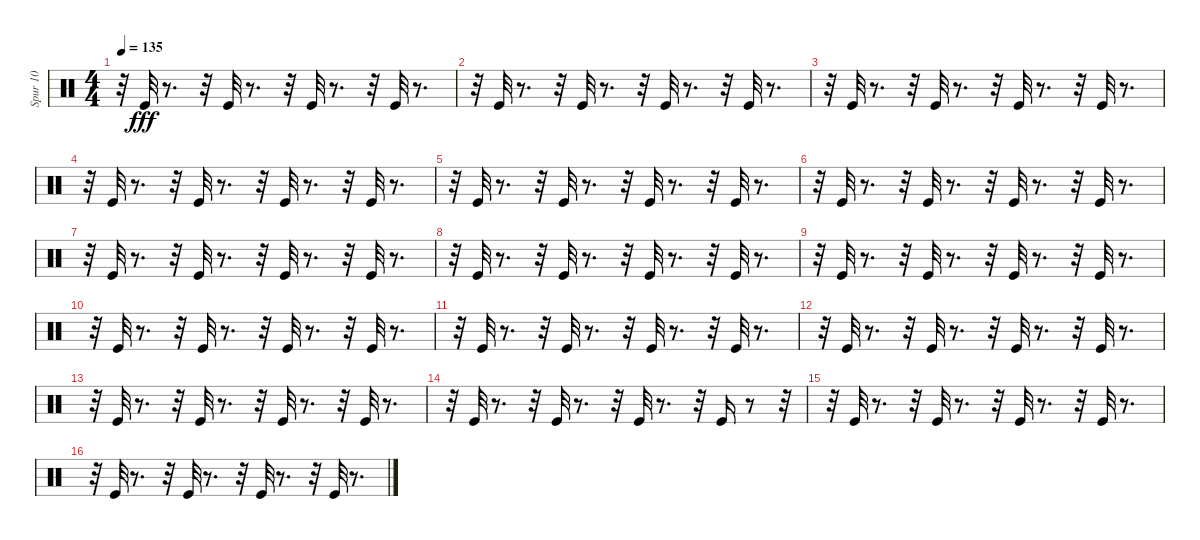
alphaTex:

\track ("Spur 10" "Spur 10") {instrument percussion}
\staff {score}
\articulation defaults
\ts (4 4)
\tempo 135
\clef neutral
\ks c
r.32{dy fff} "Kick (hit)".32 r.8{d} r.32 "Kick (hit)".32 r.8{d} r.32 "Kick (hit)".32 r.8{d} r.32 "Kick (hit)".32 r.8{d} |
r.32 "Kick (hit)".32 r.8{d} r.32 "Kick (hit)".32 r.8{d} r.32 "Kick (hit)".32 r.8{d} r.32 "Kick (hit)".32 r.8{d} |
r.32 "Kick (hit)".32 r.8{d} r.32 "Kick (hit)".32 r.8{d} r.32 "Kick (hit)".32 r.8{d} r.32 "Kick (hit)".32 r.8{d} |
r.32 "Kick (hit)".32 r.8{d} r.32 "Kick (hit)".32 r.8{d} r.32 "Kick (hit)".32 r.8{d} r.32 "Kick (hit)".32 r.8{d} |
r.32 "Kick (hit)".32 r.8{d} r.32 "Kick (hit)".32 r.8{d} r.32 "Kick (hit)".32 r.8{d} r.32 "Kick (hit)".32 r.8{d} |
r.32 "Kick (hit)".32 r.8{d} r.32 "Kick (hit)".32 r.8{d} r.32 "Kick (hit)".32 r.8{d} r.32 "Kick (hit)".32 r.8{d} |
r.32 "Kick (hit)".32 r.8{d} r.32 "Kick (hit)".32 r.8{d} r.32 "Kick (hit)".32 r.8{d} r.32 "Kick (hit)".32 r.8{d} |
r.32 "Kick (hit)".32 r.8{d} r.32 "Kick (hit)".32 r.8{d} r.32 "Kick (hit)".32 r.8{d} r.32 "Kick (hit)".32 r.8{d} |
r.32 "Kick (hit)".32 r.8{d} r.32 "Kick (hit)".32 r.8{d} r.32 "Kick (hit)".32 r.8{d} r.32 "Kick (hit)".32 r.8{d} |
r.32 "Kick (hit)".32 r.8{d} r.32 "Kick (hit)".32 r.8{d} r.32 "Kick (hit)".32 r.8{d} r.32 "Kick (hit)".32 r.8{d} |
r.32 "Kick (hit)".32 r.8{d} r.32 "Kick (hit)".32 r.8{d} r.32 "Kick (hit)".32 r.8{d} r.32 "Kick (hit)".32 r.8{d} |
r.32 "Kick (hit)".32 r.8{d} r.32 "Kick (hit)".32 r.8{d} r.32 "Kick (hit)".32 r.8{d} r.32 "Kick (hit)".32 r.8{d} |
r.32 "Kick (hit)".32 r.8{d} r.32 "Kick (hit)".32 r.8{d} r.32 "Kick (hit)".32 r.8{d} r.32 "Kick (hit)".32 r.8{d} |
r.32 "Kick (hit)".32 r.8{d} r.32 "Kick (hit)".32 r.8{d} r.32 "Kick (hit)".32 r.8{d} r.32 "Kick (hit)".16 r.8 r.32 |
r.32 "Kick (hit)".32 r.8{d} r.32 "Kick (hit)".32 r.8{d} r.32 "Kick (hit)".32 r.8{d} r.32 "Kick (hit)".32 r.8{d} |
r.32 "Kick (hit)".32 r.8{d} r.32 "Kick (hit)".32 r.8{d} r.32 "Kick (hit)".32 r.8{d} r.32 "Kick (hit)".32 r.8{d}
